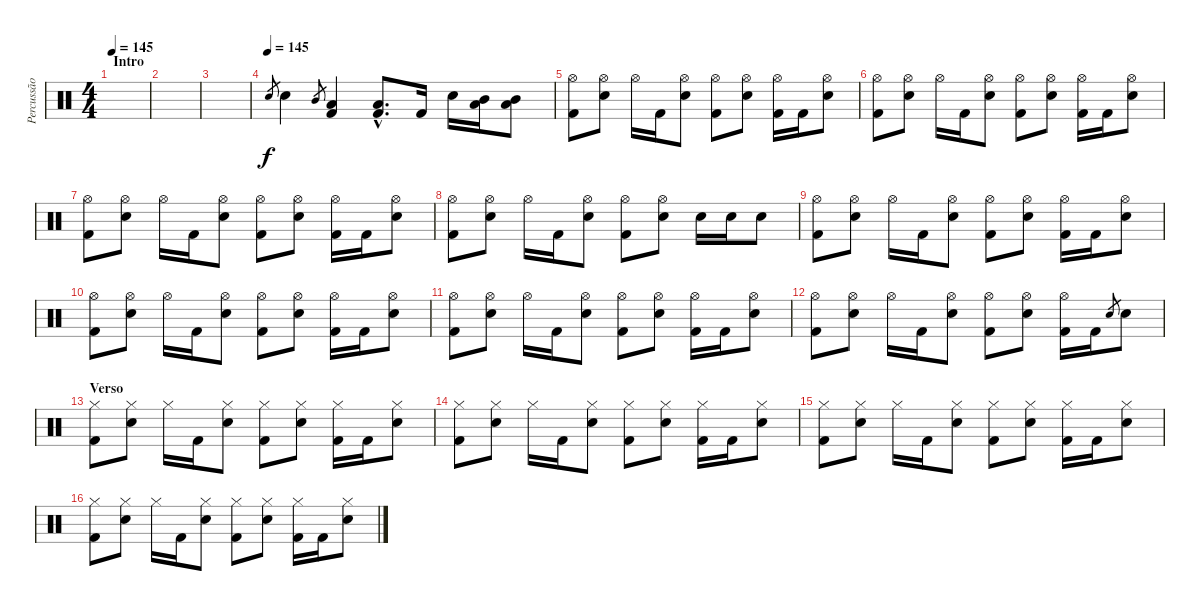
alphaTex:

\track ("Percussão" "Percussão") {instrument percussion}
\staff {score}
\articulation defaults
\ts (4 4)
\section ("" "Intro")
\tempo 145
\tempo 135
\tempo 145
\clef neutral
\ks c
|
|
|
\tempo (145)
"Snare (hit) 2".8{gr} "Snare (hit) 2".4 "Mid Tom (hit)".8{gr} ("Low Tom (hit)" "Kick (hit) 2").4 ("Low Tom (hit)"{hac} "Kick (hit) 2"{hac}).8{d} "Kick (hit) 2".16 "Snare (hit) 2".16 ("Mid Tom (hit)" "Low Tom (hit)").16 ("Mid Tom (hit)" "Low Tom (hit)").8 |
("Hi-Hat (open)" "Kick (hit) 2").8 ("Hi-Hat (open)" "Snare (hit) 2").8 "Hi-Hat (open)".16 "Kick (hit) 2".16 ("Hi-Hat (open)" "Snare (hit) 2").8 ("Hi-Hat (open)" "Kick (hit) 2").8 ("Hi-Hat (open)" "Snare (hit) 2").8 ("Hi-Hat (open)" "Kick (hit) 2").16 "Kick (hit) 2".16 ("Hi-Hat (open)" "Snare (hit) 2").8 |
("Hi-Hat (open)" "Kick (hit) 2").8 ("Hi-Hat (open)" "Snare (hit) 2").8 "Hi-Hat (open)".16 "Kick (hit) 2".16 ("Hi-Hat (open)" "Snare (hit) 2").8 ("Hi-Hat (open)" "Kick (hit) 2").8 ("Hi-Hat (open)" "Snare (hit) 2").8 ("Hi-Hat (open)" "Kick (hit) 2").16 "Kick (hit) 2".16 ("Hi-Hat (open)" "Snare (hit) 2").8 |
("Hi-Hat (open)" "Kick (hit) 2").8 ("Hi-Hat (open)" "Snare (hit) 2").8 "Hi-Hat (open)".16 "Kick (hit) 2".16 ("Hi-Hat (open)" "Snare (hit) 2").8 ("Hi-Hat (open)" "Kick (hit) 2").8 ("Hi-Hat (open)" "Snare (hit) 2").8 ("Hi-Hat (open)" "Kick (hit) 2").16 "Kick (hit) 2".16 ("Hi-Hat (open)" "Snare (hit) 2").8 |
("Hi-Hat (open)" "Kick (hit) 2").8 ("Hi-Hat (open)" "Snare (hit) 2").8 "Hi-Hat (open)".16 "Kick (hit) 2".16 ("Hi-Hat (open)" "Snare (hit) 2").8 ("Hi-Hat (open)" "Kick (hit) 2").8 ("Hi-Hat (open)" "Snare (hit) 2").8 "Snare (hit) 2".16 "Snare (hit) 2".16 "Snare (hit) 2".8 |
("Hi-Hat (open)" "Kick (hit) 2").8 ("Hi-Hat (open)" "Snare (hit) 2").8 "Hi-Hat (open)".16 "Kick (hit) 2".16 ("Hi-Hat (open)" "Snare (hit) 2").8 ("Hi-Hat (open)" "Kick (hit) 2").8 ("Hi-Hat (open)" "Snare (hit) 2").8 ("Hi-Hat (open)" "Kick (hit) 2").16 "Kick (hit) 2".16 ("Hi-Hat (open)" "Snare (hit) 2").8 |
("Hi-Hat (open)" "Kick (hit) 2").8 ("Hi-Hat (open)" "Snare (hit) 2").8 "Hi-Hat (open)".16 "Kick (hit) 2".16 ("Hi-Hat (open)" "Snare (hit) 2").8 ("Hi-Hat (open)" "Kick (hit) 2").8 ("Hi-Hat (open)" "Snare (hit) 2").8 ("Hi-Hat (open)" "Kick (hit) 2").16 "Kick (hit) 2".16 ("Hi-Hat (open)" "Snare (hit) 2").8 |
("Hi-Hat (open)" "Kick (hit) 2").8 ("Hi-Hat (open)" "Snare (hit) 2").8 "Hi-Hat (open)".16 "Kick (hit) 2".16 ("Hi-Hat (open)" "Snare (hit) 2").8 ("Hi-Hat (open)" "Kick (hit) 2").8 ("Hi-Hat (open)" "Snare (hit) 2").8 ("Hi-Hat (open)" "Kick (hit) 2").16 "Kick (hit) 2".16 ("Hi-Hat (open)" "Snare (hit) 2").8 |
("Hi-Hat (open)" "Kick (hit) 2").8 ("Hi-Hat (open)" "Snare (hit) 2").8 "Hi-Hat (open)".16 "Kick (hit) 2".16 ("Hi-Hat (open)" "Snare (hit) 2").8 ("Hi-Hat (open)" "Kick (hit) 2").8 ("Hi-Hat (open)" "Snare (hit) 2").8 ("Hi-Hat (open)" "Kick (hit) 2").16 "Kick (hit) 2".16 "Snare (hit) 2".8{gr} "Snare (hit) 2".8 |
\section ("" "Verso")
("Hi-Hat (closed)" "Kick (hit) 2").8 ("Hi-Hat (closed)" "Snare (hit) 2").8 "Hi-Hat (closed)".16 "Kick (hit) 2".16 ("Hi-Hat (closed)" "Snare (hit) 2").8 ("Hi-Hat (closed)" "Kick (hit) 2").8 ("Hi-Hat (closed)" "Snare (hit) 2").8 ("Hi-Hat (closed)" "Kick (hit) 2").16 "Kick (hit) 2".16 ("Hi-Hat (closed)" "Snare (hit) 2").8 |
("Hi-Hat (closed)" "Kick (hit) 2").8 ("Hi-Hat (closed)" "Snare (hit) 2").8 "Hi-Hat (closed)".16 "Kick (hit) 2".16 ("Hi-Hat (closed)" "Snare (hit) 2").8 ("Hi-Hat (closed)" "Kick (hit) 2").8 ("Hi-Hat (closed)" "Snare (hit) 2").8 ("Hi-Hat (closed)" "Kick (hit) 2").16 "Kick (hit) 2".16 ("Hi-Hat (closed)" "Snare (hit) 2").8 |
("Hi-Hat (closed)" "Kick (hit) 2").8 ("Hi-Hat (closed)" "Snare (hit) 2").8 "Hi-Hat (closed)".16 "Kick (hit) 2".16 ("Hi-Hat (closed)" "Snare (hit) 2").8 ("Hi-Hat (closed)" "Kick (hit) 2").8 ("Hi-Hat (closed)" "Snare (hit) 2").8 ("Hi-Hat (closed)" "Kick (hit) 2").16 "Kick (hit) 2".16 ("Hi-Hat (closed)" "Snare (hit) 2").8 |
("Hi-Hat (closed)" "Kick (hit) 2").8 ("Hi-Hat (closed)" "Snare (hit) 2").8 "Hi-Hat (closed)".16 "Kick (hit) 2".16 ("Hi-Hat (closed)" "Snare (hit) 2").8 ("Hi-Hat (closed)" "Kick (hit) 2").8 ("Hi-Hat (closed)" "Snare (hit) 2").8 ("Hi-Hat (closed)" "Kick (hit) 2").16 "Kick (hit) 2".16 ("Hi-Hat (closed)" "Snare (hit) 2").8
